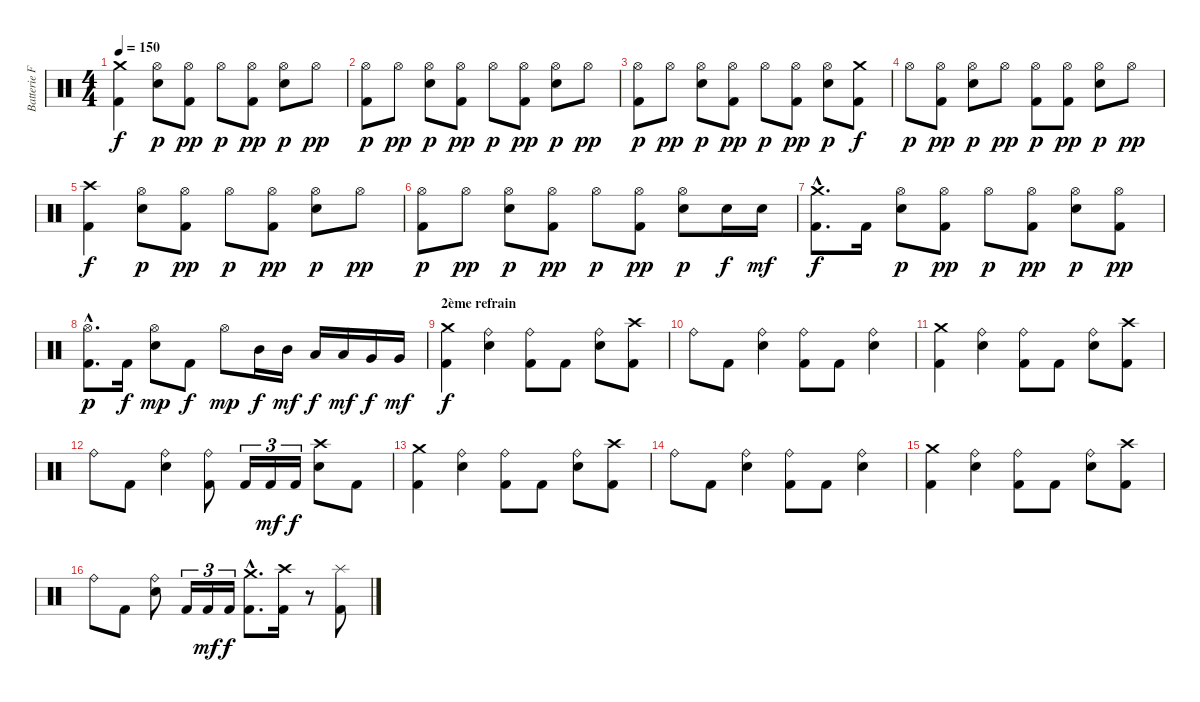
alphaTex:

\track ("Batterie Franck" "Batterie F") {instrument percussion}
\staff {score}
\articulation defaults
\ts (4 4)
\tempo 150
\clef neutral
\ks c
("Crash medium (hit)" "Kick (hit) 2").4{dy f} ("Hi-Hat (open)" "Snare (hit) 2").8{dy p} ("Hi-Hat (open)" "Kick (hit) 2").8{dy pp} "Hi-Hat (open)".8{dy p} ("Hi-Hat (open)" "Kick (hit) 2").8{dy pp} ("Hi-Hat (open)" "Snare (hit) 2").8{dy p} "Hi-Hat (open)".8{dy pp} |
("Hi-Hat (open)" "Kick (hit) 2").8{dy p} "Hi-Hat (open)".8{dy pp} ("Hi-Hat (open)" "Snare (hit) 2").8{dy p} ("Hi-Hat (open)" "Kick (hit) 2").8{dy pp} "Hi-Hat (open)".8{dy p} ("Hi-Hat (open)" "Kick (hit) 2").8{dy pp} ("Hi-Hat (open)" "Snare (hit) 2").8{dy p} "Hi-Hat (open)".8{dy pp} |
("Hi-Hat (open)" "Kick (hit) 2").8{dy p} "Hi-Hat (open)".8{dy pp} ("Hi-Hat (open)" "Snare (hit) 2").8{dy p} ("Hi-Hat (open)" "Kick (hit) 2").8{dy pp} "Hi-Hat (open)".8{dy p} ("Hi-Hat (open)" "Kick (hit) 2").8{dy pp} ("Hi-Hat (open)" "Snare (hit) 2").8{dy p} ("Crash medium (hit)" "Kick (hit) 2").8{dy f} |
"Hi-Hat (open)".8{dy p} ("Hi-Hat (open)" "Kick (hit) 2").8{dy pp} ("Hi-Hat (open)" "Snare (hit) 2").8{dy p} "Hi-Hat (open)".8{dy pp} ("Hi-Hat (open)" "Kick (hit) 2").8{dy p} ("Hi-Hat (open)" "Kick (hit) 2").8{dy pp} ("Hi-Hat (open)" "Snare (hit) 2").8{dy p} "Hi-Hat (open)".8{dy pp} |
("Crash high (hit)" "Kick (hit) 2").4{dy f} ("Hi-Hat (open)" "Snare (hit) 2").8{dy p} ("Hi-Hat (open)" "Kick (hit) 2").8{dy pp} "Hi-Hat (open)".8{dy p} ("Hi-Hat (open)" "Kick (hit) 2").8{dy pp} ("Hi-Hat (open)" "Snare (hit) 2").8{dy p} "Hi-Hat (open)".8{dy pp} |
("Hi-Hat (open)" "Kick (hit) 2").8{dy p} "Hi-Hat (open)".8{dy pp} ("Hi-Hat (open)" "Snare (hit) 2").8{dy p} ("Hi-Hat (open)" "Kick (hit) 2").8{dy pp} "Hi-Hat (open)".8{dy p} ("Hi-Hat (open)" "Kick (hit) 2").8{dy pp} ("Hi-Hat (open)" "Snare (hit) 2").8{dy p} "Snare (hit) 2".16{dy f} "Snare (hit) 2".16{dy mf} |
("Crash medium (hit)"{hac} "Kick (hit) 2"{hac}).8{d dy f} "Kick (hit) 2".16 ("Hi-Hat (open)" "Snare (hit) 2").8{dy p} ("Hi-Hat (open)" "Kick (hit) 2").8{dy pp} "Hi-Hat (open)".8{dy p} ("Hi-Hat (open)" "Kick (hit) 2").8{dy pp} ("Hi-Hat (open)" "Snare (hit) 2").8{dy p} ("Hi-Hat (open)" "Kick (hit) 2").8{dy pp} |
("Hi-Hat (open)" "Kick (hit) 2"{hac}).8{d dy p} "Kick (hit) 2".16{dy f} ("Hi-Hat (open)" "Snare (hit) 2").8{dy mp} "Kick (hit) 2".8{dy f} "Hi-Hat (open)".8{dy mp} "Mid Tom (hit)".16{dy f} "Mid Tom (hit)".16{dy mf} "Low Tom (hit)".16{dy f} "Low Tom (hit)".16{dy mf} "Very Low Tom (hit)".16{dy f} "Very Low Tom (hit)".16{dy mf} |
\section ("" "2ème refrain")
("Crash medium (hit)" "Kick (hit) 2").4{dy f} ("Ride (bell)" "Snare (hit) 2").4 ("Ride (bell)" "Kick (hit) 2").8 "Kick (hit) 2".8 ("Ride (bell)" "Snare (hit) 2").8 ("Crash high (hit)" "Kick (hit) 2").8 |
"Ride (bell)".8 "Kick (hit) 2".8 ("Ride (bell)" "Snare (hit) 2").4 ("Ride (bell)" "Kick (hit) 2").8 "Kick (hit) 2".8 ("Ride (bell)" "Snare (hit) 2").4 |
("Crash medium (hit)" "Kick (hit) 2").4 ("Ride (bell)" "Snare (hit) 2").4 ("Ride (bell)" "Kick (hit) 2").8 "Kick (hit) 2".8 ("Ride (bell)" "Snare (hit) 2").8 ("Crash high (hit)" "Kick (hit) 2").8 |
"Ride (bell)".8 "Kick (hit) 2".8 ("Ride (bell)" "Snare (hit) 2").4 ("Ride (bell)" "Kick (hit) 2").8 "Kick (hit) 2".16{tu (3 2)} "Kick (hit) 2".16{tu (3 2) dy mf} "Kick (hit) 2".16{tu (3 2) dy f} ("Crash high (hit)" "Snare (hit) 2").8 "Kick (hit) 2".8 |
("Crash medium (hit)" "Kick (hit) 2").4 ("Ride (bell)" "Snare (hit) 2").4 ("Ride (bell)" "Kick (hit) 2").8 "Kick (hit) 2".8 ("Ride (bell)" "Snare (hit) 2").8 ("Crash high (hit)" "Kick (hit) 2").8 |
"Ride (bell)".8 "Kick (hit) 2".8 ("Ride (bell)" "Snare (hit) 2").4 ("Ride (bell)" "Kick (hit) 2").8 "Kick (hit) 2".8 ("Ride (bell)" "Snare (hit) 2").4 |
("Crash medium (hit)" "Kick (hit) 2").4 ("Ride (bell)" "Snare (hit) 2").4 ("Ride (bell)" "Kick (hit) 2").8 "Kick (hit) 2".8 ("Ride (bell)" "Snare (hit) 2").8 ("Crash high (hit)" "Kick (hit) 2").8 |
"Ride (bell)".8 "Kick (hit) 2".8 ("Ride (bell)" "Snare (hit) 2").8 "Kick (hit) 2".16{tu (3 2)} "Kick (hit) 2".16{tu (3 2) dy mf} "Kick (hit) 2".16{tu (3 2) dy f} ("Crash medium (hit)"{hac} "Kick (hit) 2"{hac}).8{d} ("Crash high (hit)" "Kick (hit) 2").16 r.8 ("Splash (hit)" "Kick (hit) 2").8
